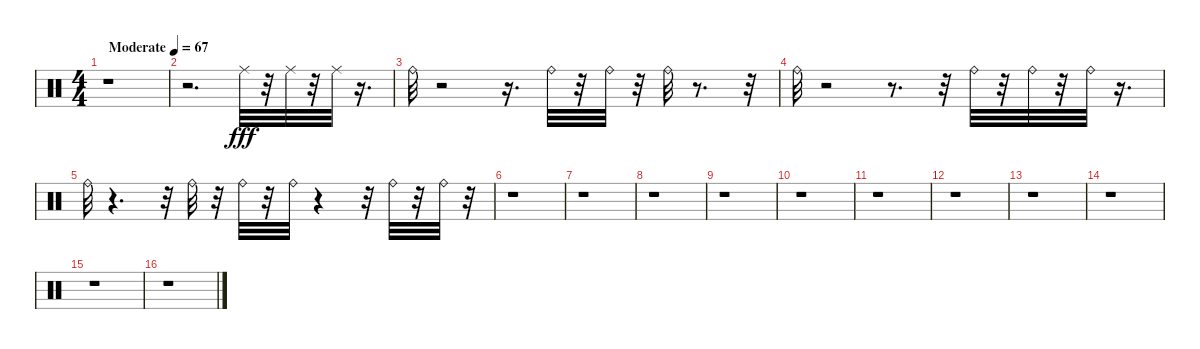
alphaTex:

\track "" {instrument percussion}
\staff {score}
\articulation defaults
\ts (4 4)
\tempo (67 "Moderate")
\clef neutral
\ks c
r.1{dy fff} |
r.2{d} "Ride (middle)".32 r.32 "Ride (middle)".32 r.32 "Ride (middle)".32 r.16{d} |
"Ride (bell)".32 r.2 r.16{d} "Ride (bell)".32 r.32 "Ride (bell)".32 r.32 "Ride (bell)".32 r.8{d} r.32 |
"Ride (bell)".32 r.2 r.8{d} r.32 "Ride (bell)".32 r.32 "Ride (bell)".32 r.32 "Ride (bell)".32 r.16{d} |
"Ride (bell)".32 r.4{d} r.32 "Ride (bell)".32 r.32 "Ride (bell)".32 r.32 "Ride (bell)".32 r.4 r.32 "Ride (bell)".32 r.32 "Ride (bell)".32 r.32 |
r.1 |
r.1 |
r.1 |
r.1 |
r.1 |
r.1 |
r.1 |
r.1 |
r.1 |
r.1 |
r.1
